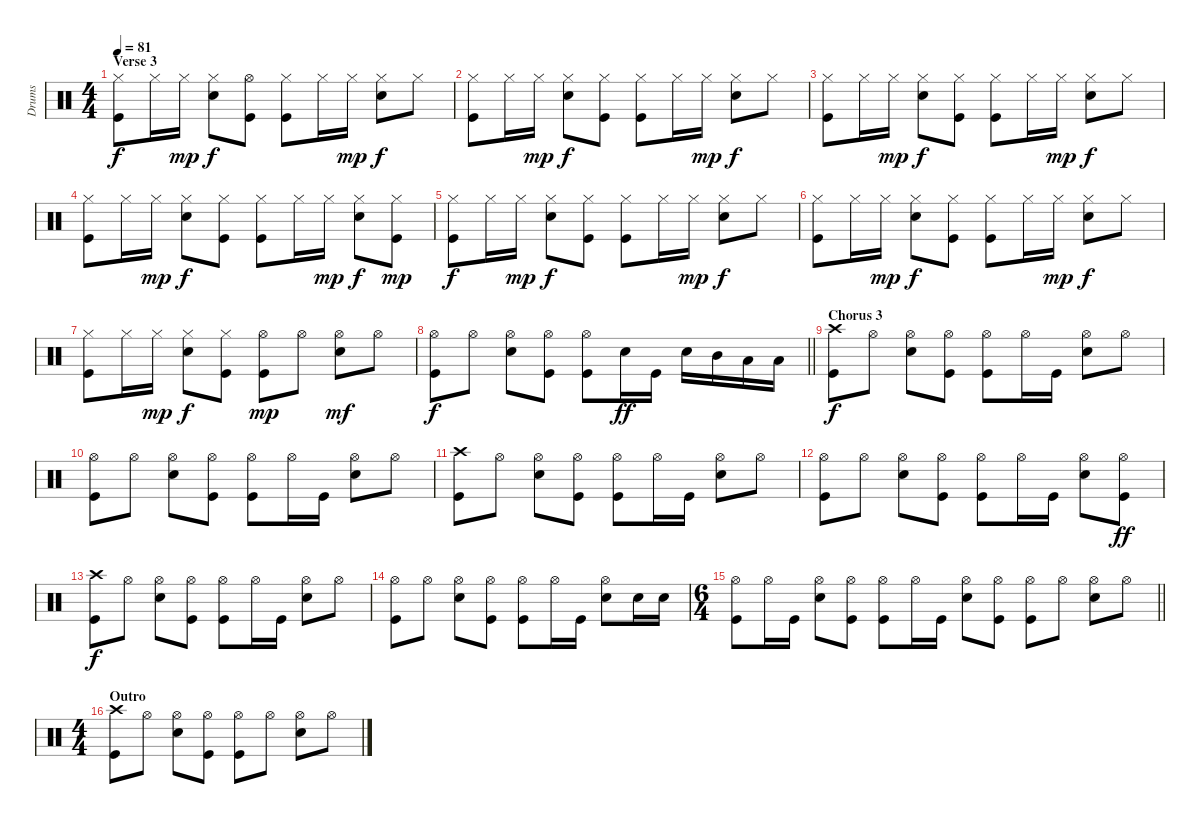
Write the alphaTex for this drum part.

\track ("Drums" "Drums") {instrument percussion}
\staff {score}
\articulation defaults
\ts (4 4)
\section ("" "Verse 3")
\tempo 81
\clef neutral
\ks c
("Hi-Hat (closed)" "Kick (hit)").8{dy f} "Hi-Hat (closed)".16 "Hi-Hat (closed)".16{dy mp} ("Hi-Hat (closed)" "Snare (hit) 2").8{dy f} ("Hi-Hat (open)" "Kick (hit)").8 ("Hi-Hat (closed)" "Kick (hit)").8 "Hi-Hat (closed)".16 "Hi-Hat (closed)".16{dy mp} ("Hi-Hat (closed)" "Snare (hit) 2").8{dy f} "Hi-Hat (closed)".8 |
("Hi-Hat (closed)" "Kick (hit)").8 "Hi-Hat (closed)".16 "Hi-Hat (closed)".16{dy mp} ("Hi-Hat (closed)" "Snare (hit) 2").8{dy f} ("Hi-Hat (closed)" "Kick (hit)").8 ("Hi-Hat (closed)" "Kick (hit)").8 "Hi-Hat (closed)".16 "Hi-Hat (closed)".16{dy mp} ("Hi-Hat (closed)" "Snare (hit) 2").8{dy f} "Hi-Hat (closed)".8 |
("Hi-Hat (closed)" "Kick (hit)").8 "Hi-Hat (closed)".16 "Hi-Hat (closed)".16{dy mp} ("Hi-Hat (closed)" "Snare (hit) 2").8{dy f} ("Hi-Hat (closed)" "Kick (hit)").8 ("Hi-Hat (closed)" "Kick (hit)").8 "Hi-Hat (closed)".16 "Hi-Hat (closed)".16{dy mp} ("Hi-Hat (closed)" "Snare (hit) 2").8{dy f} "Hi-Hat (closed)".8 |
("Hi-Hat (closed)" "Kick (hit)").8 "Hi-Hat (closed)".16 "Hi-Hat (closed)".16{dy mp} ("Hi-Hat (closed)" "Snare (hit) 2").8{dy f} ("Hi-Hat (closed)" "Kick (hit)").8 ("Hi-Hat (closed)" "Kick (hit)").8 "Hi-Hat (closed)".16 "Hi-Hat (closed)".16{dy mp} ("Hi-Hat (closed)" "Snare (hit) 2").8{dy f} ("Hi-Hat (closed)" "Kick (hit)").8{dy mp} |
("Hi-Hat (closed)" "Kick (hit)").8{dy f} "Hi-Hat (closed)".16 "Hi-Hat (closed)".16{dy mp} ("Hi-Hat (closed)" "Snare (hit) 2").8{dy f} ("Hi-Hat (closed)" "Kick (hit)").8 ("Hi-Hat (closed)" "Kick (hit)").8 "Hi-Hat (closed)".16 "Hi-Hat (closed)".16{dy mp} ("Hi-Hat (closed)" "Snare (hit) 2").8{dy f} "Hi-Hat (closed)".8 |
("Hi-Hat (closed)" "Kick (hit)").8 "Hi-Hat (closed)".16 "Hi-Hat (closed)".16{dy mp} ("Hi-Hat (closed)" "Snare (hit) 2").8{dy f} ("Hi-Hat (closed)" "Kick (hit)").8 ("Hi-Hat (closed)" "Kick (hit)").8 "Hi-Hat (closed)".16 "Hi-Hat (closed)".16{dy mp} ("Hi-Hat (closed)" "Snare (hit) 2").8{dy f} "Hi-Hat (closed)".8 |
("Hi-Hat (closed)" "Kick (hit)").8 "Hi-Hat (closed)".16 "Hi-Hat (closed)".16{dy mp} ("Hi-Hat (closed)" "Snare (hit) 2").8{dy f} ("Hi-Hat (closed)" "Kick (hit)").8 ("Hi-Hat (open)" "Kick (hit)").8{dy mp} "Hi-Hat (open)".8 ("Hi-Hat (open)" "Snare (hit) 2").8{dy mf} "Hi-Hat (open)".8 |
\barLineRight lightlight
("Hi-Hat (open)" "Kick (hit)").8{dy f} "Hi-Hat (open)".8 ("Hi-Hat (open)" "Snare (hit) 2").8 ("Hi-Hat (open)" "Kick (hit)").8 ("Hi-Hat (open)" "Kick (hit)").8 "Snare (hit) 2".16{dy ff} "Kick (hit)".16 "Snare (hit) 2".16 "Mid Tom (hit)".16 "Low Tom (hit)".16 "Low Tom (hit)".16 |
\section ("" "Chorus 3")
("Crash high (hit)" "Kick (hit)").8{dy f} "Hi-Hat (open)".8 ("Hi-Hat (open)" "Snare (hit) 2").8 ("Hi-Hat (open)" "Kick (hit)").8 ("Hi-Hat (open)" "Kick (hit)").8 "Hi-Hat (open)".16 "Kick (hit)".16 ("Hi-Hat (open)" "Snare (hit) 2").8 "Hi-Hat (open)".8 |
("Hi-Hat (open)" "Kick (hit)").8 "Hi-Hat (open)".8 ("Hi-Hat (open)" "Snare (hit) 2").8 ("Hi-Hat (open)" "Kick (hit)").8 ("Hi-Hat (open)" "Kick (hit)").8 "Hi-Hat (open)".16 "Kick (hit)".16 ("Hi-Hat (open)" "Snare (hit) 2").8 "Hi-Hat (open)".8 |
("Crash high (hit)" "Kick (hit)").8 "Hi-Hat (open)".8 ("Hi-Hat (open)" "Snare (hit) 2").8 ("Hi-Hat (open)" "Kick (hit)").8 ("Hi-Hat (open)" "Kick (hit)").8 "Hi-Hat (open)".16 "Kick (hit)".16 ("Hi-Hat (open)" "Snare (hit) 2").8 "Hi-Hat (open)".8 |
("Hi-Hat (open)" "Kick (hit)").8 "Hi-Hat (open)".8 ("Hi-Hat (open)" "Snare (hit) 2").8 ("Hi-Hat (open)" "Kick (hit)").8 ("Hi-Hat (open)" "Kick (hit)").8 "Hi-Hat (open)".16 "Kick (hit)".16 ("Hi-Hat (open)" "Snare (hit) 2").8 ("Hi-Hat (open)" "Kick (hit)").8{dy ff} |
("Crash high (hit)" "Kick (hit)").8{dy f} "Hi-Hat (open)".8 ("Hi-Hat (open)" "Snare (hit) 2").8 ("Hi-Hat (open)" "Kick (hit)").8 ("Hi-Hat (open)" "Kick (hit)").8 "Hi-Hat (open)".16 "Kick (hit)".16 ("Hi-Hat (open)" "Snare (hit) 2").8 "Hi-Hat (open)".8 |
("Hi-Hat (open)" "Kick (hit)").8 "Hi-Hat (open)".8 ("Hi-Hat (open)" "Snare (hit) 2").8 ("Hi-Hat (open)" "Kick (hit)").8 ("Hi-Hat (open)" "Kick (hit)").8 "Hi-Hat (open)".16 "Kick (hit)".16 ("Hi-Hat (open)" "Snare (hit) 2").8 "Snare (hit) 2".16 "Snare (hit) 2".16 |
\ts (6 4)
\barLineRight lightlight
("Hi-Hat (open)" "Kick (hit)").8 "Hi-Hat (open)".16 "Kick (hit)".16 ("Hi-Hat (open)" "Snare (hit) 2").8 ("Hi-Hat (open)" "Kick (hit)").8 ("Hi-Hat (open)" "Kick (hit)").8 "Hi-Hat (open)".16 "Kick (hit)".16 ("Hi-Hat (open)" "Snare (hit) 2").8 ("Hi-Hat (open)" "Kick (hit)").8 ("Hi-Hat (open)" "Kick (hit)").8 "Hi-Hat (open)".8 ("Hi-Hat (open)" "Snare (hit) 2").8 "Hi-Hat (open)".8 |
\ts (4 4)
\section ("" "Outro")
("Crash high (hit)" "Kick (hit)").8 "Hi-Hat (open)".8 ("Hi-Hat (open)" "Snare (hit) 2").8 ("Hi-Hat (open)" "Kick (hit)").8 ("Hi-Hat (open)" "Kick (hit)").8 "Hi-Hat (open)".8 ("Hi-Hat (open)" "Snare (hit) 2").8 "Hi-Hat (open)".8
